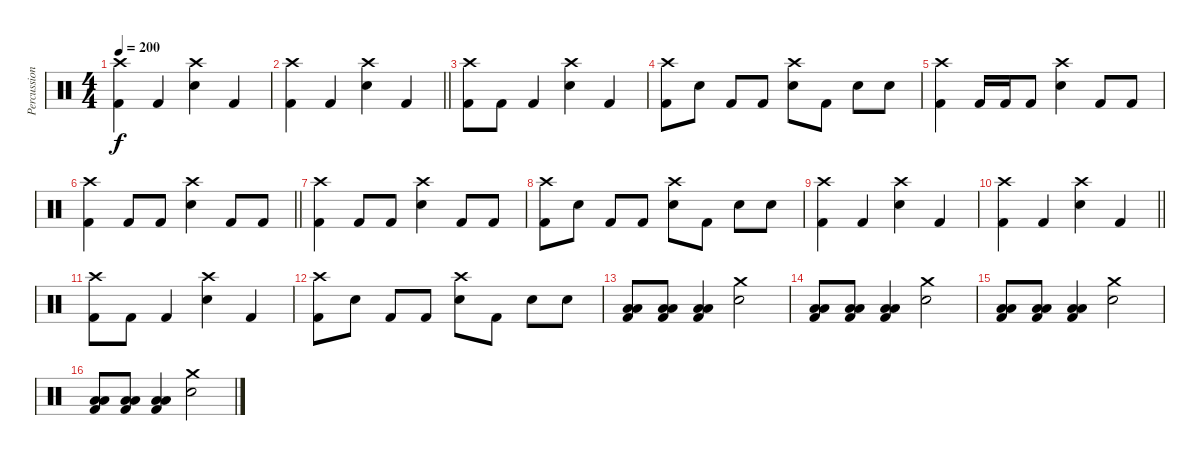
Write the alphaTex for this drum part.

\track ("Percussion" "Percussion") {instrument percussion}
\staff {score}
\articulation defaults
\ts (4 4)
\tempo 200
\clef neutral
\ks c
("Crash high (hit)" "Kick (hit) 2").4{dy f} "Kick (hit) 2".4 ("Crash high (hit)" "Snare (hit) 2").4 "Kick (hit) 2".4 |
\barLineRight lightlight
("Crash high (hit)" "Kick (hit) 2").4 "Kick (hit) 2".4 ("Crash high (hit)" "Snare (hit) 2").4 "Kick (hit) 2".4 |
("Crash high (hit)" "Kick (hit) 2").8 "Kick (hit) 2".8 "Kick (hit) 2".4 ("Crash high (hit)" "Snare (hit) 2").4 "Kick (hit) 2".4 |
("Crash high (hit)" "Kick (hit) 2").8 "Snare (hit) 2".8 "Kick (hit) 2".8 "Kick (hit) 2".8 ("Crash high (hit)" "Snare (hit) 2").8 "Kick (hit) 2".8 "Snare (hit) 2".8 "Snare (hit) 2".8 |
("Crash high (hit)" "Kick (hit) 2").4 "Kick (hit) 2".16 "Kick (hit) 2".16 "Kick (hit) 2".8 ("Crash high (hit)" "Snare (hit) 2").4 "Kick (hit) 2".8 "Kick (hit) 2".8 |
\barLineRight lightlight
("Crash high (hit)" "Kick (hit) 2").4 "Kick (hit) 2".8 "Kick (hit) 2".8 ("Crash high (hit)" "Snare (hit) 2").4 "Kick (hit) 2".8 "Kick (hit) 2".8 |
("Crash high (hit)" "Kick (hit) 2").4 "Kick (hit) 2".8 "Kick (hit) 2".8 ("Crash high (hit)" "Snare (hit) 2").4 "Kick (hit) 2".8 "Kick (hit) 2".8 |
("Crash high (hit)" "Kick (hit) 2").8 "Snare (hit) 2".8 "Kick (hit) 2".8 "Kick (hit) 2".8 ("Crash high (hit)" "Snare (hit) 2").8 "Kick (hit) 2".8 "Snare (hit) 2".8 "Snare (hit) 2".8 |
("Crash high (hit)" "Kick (hit) 2").4 "Kick (hit) 2".4 ("Crash high (hit)" "Snare (hit) 2").4 "Kick (hit) 2".4 |
\barLineRight lightlight
("Crash high (hit)" "Kick (hit) 2").4 "Kick (hit) 2".4 ("Crash high (hit)" "Snare (hit) 2").4 "Kick (hit) 2".4 |
("Crash high (hit)" "Kick (hit) 2").8 "Kick (hit) 2".8 "Kick (hit) 2".4 ("Crash high (hit)" "Snare (hit) 2").4 "Kick (hit) 2".4 |
("Crash high (hit)" "Kick (hit) 2").8 "Snare (hit) 2".8 "Kick (hit) 2".8 "Kick (hit) 2".8 ("Crash high (hit)" "Snare (hit) 2").8 "Kick (hit) 2".8 "Snare (hit) 2".8 "Snare (hit) 2".8 |
("Low Floor Tom (hit)" "Low Tom (hit)" "Kick (hit) 2").8 ("Low Floor Tom (hit)" "Low Tom (hit)" "Kick (hit) 2").8 ("Low Floor Tom (hit)" "Low Tom (hit)" "Kick (hit) 2").4 ("Crash medium (hit)" "Snare (hit) 2").2 |
("Low Floor Tom (hit)" "Low Tom (hit)" "Kick (hit) 2").8 ("Low Floor Tom (hit)" "Low Tom (hit)" "Kick (hit) 2").8 ("Low Floor Tom (hit)" "Low Tom (hit)" "Kick (hit) 2").4 ("Crash medium (hit)" "Snare (hit) 2").2 |
("Low Floor Tom (hit)" "Low Tom (hit)" "Kick (hit) 2").8 ("Low Floor Tom (hit)" "Low Tom (hit)" "Kick (hit) 2").8 ("Low Floor Tom (hit)" "Low Tom (hit)" "Kick (hit) 2").4 ("Crash medium (hit)" "Snare (hit) 2").2 |
("Low Floor Tom (hit)" "Low Tom (hit)" "Kick (hit) 2").8 ("Low Floor Tom (hit)" "Low Tom (hit)" "Kick (hit) 2").8 ("Low Floor Tom (hit)" "Low Tom (hit)" "Kick (hit) 2").4 ("Crash medium (hit)" "Snare (hit) 2").2
